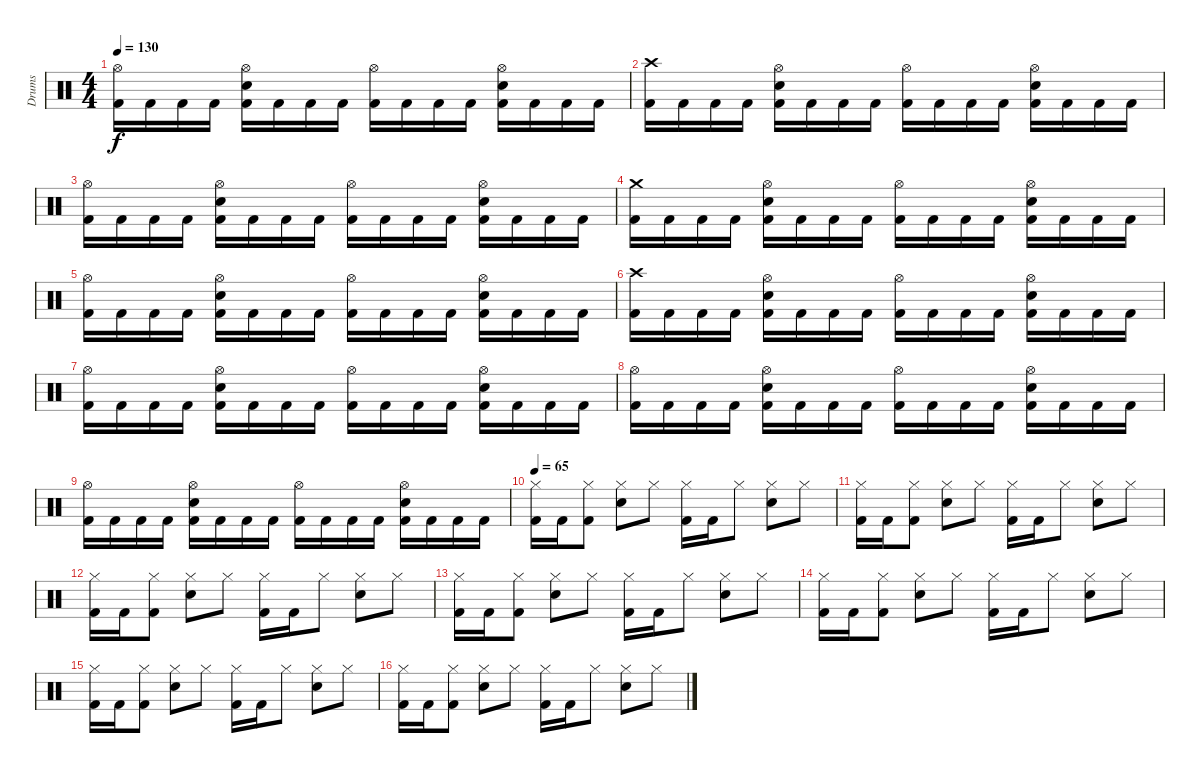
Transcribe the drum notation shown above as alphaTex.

\track ("Drums" "Drums") {instrument percussion}
\staff {score}
\articulation defaults
\ts (4 4)
\tempo 130
\clef neutral
\ks c
("Hi-Hat (open)" "Kick (hit) 2").16{dy f} "Kick (hit) 2".16 "Kick (hit) 2".16 "Kick (hit) 2".16 ("Hi-Hat (open)" "Electric Snare (hit)" "Kick (hit) 2").16 "Kick (hit) 2".16 "Kick (hit) 2".16 "Kick (hit) 2".16 ("Hi-Hat (open)" "Kick (hit) 2").16 "Kick (hit) 2".16 "Kick (hit) 2".16 "Kick (hit) 2".16 ("Hi-Hat (open)" "Electric Snare (hit)" "Kick (hit) 2").16 "Kick (hit) 2".16 "Kick (hit) 2".16 "Kick (hit) 2".16 |
("Crash high (hit)" "Kick (hit) 2").16 "Kick (hit) 2".16 "Kick (hit) 2".16 "Kick (hit) 2".16 ("Hi-Hat (open)" "Electric Snare (hit)" "Kick (hit) 2").16 "Kick (hit) 2".16 "Kick (hit) 2".16 "Kick (hit) 2".16 ("Hi-Hat (open)" "Kick (hit) 2").16 "Kick (hit) 2".16 "Kick (hit) 2".16 "Kick (hit) 2".16 ("Hi-Hat (open)" "Electric Snare (hit)" "Kick (hit) 2").16 "Kick (hit) 2".16 "Kick (hit) 2".16 "Kick (hit) 2".16 |
("Hi-Hat (open)" "Kick (hit) 2").16 "Kick (hit) 2".16 "Kick (hit) 2".16 "Kick (hit) 2".16 ("Hi-Hat (open)" "Electric Snare (hit)" "Kick (hit) 2").16 "Kick (hit) 2".16 "Kick (hit) 2".16 "Kick (hit) 2".16 ("Hi-Hat (open)" "Kick (hit) 2").16 "Kick (hit) 2".16 "Kick (hit) 2".16 "Kick (hit) 2".16 ("Hi-Hat (open)" "Electric Snare (hit)" "Kick (hit) 2").16 "Kick (hit) 2".16 "Kick (hit) 2".16 "Kick (hit) 2".16 |
("Crash medium (hit)" "Kick (hit) 2").16 "Kick (hit) 2".16 "Kick (hit) 2".16 "Kick (hit) 2".16 ("Hi-Hat (open)" "Electric Snare (hit)" "Kick (hit) 2").16 "Kick (hit) 2".16 "Kick (hit) 2".16 "Kick (hit) 2".16 ("Hi-Hat (open)" "Kick (hit) 2").16 "Kick (hit) 2".16 "Kick (hit) 2".16 "Kick (hit) 2".16 ("Hi-Hat (open)" "Electric Snare (hit)" "Kick (hit) 2").16 "Kick (hit) 2".16 "Kick (hit) 2".16 "Kick (hit) 2".16 |
("Hi-Hat (open)" "Kick (hit) 2").16 "Kick (hit) 2".16 "Kick (hit) 2".16 "Kick (hit) 2".16 ("Hi-Hat (open)" "Electric Snare (hit)" "Kick (hit) 2").16 "Kick (hit) 2".16 "Kick (hit) 2".16 "Kick (hit) 2".16 ("Hi-Hat (open)" "Kick (hit) 2").16 "Kick (hit) 2".16 "Kick (hit) 2".16 "Kick (hit) 2".16 ("Hi-Hat (open)" "Electric Snare (hit)" "Kick (hit) 2").16 "Kick (hit) 2".16 "Kick (hit) 2".16 "Kick (hit) 2".16 |
("Crash high (hit)" "Kick (hit) 2").16 "Kick (hit) 2".16 "Kick (hit) 2".16 "Kick (hit) 2".16 ("Hi-Hat (open)" "Electric Snare (hit)" "Kick (hit) 2").16 "Kick (hit) 2".16 "Kick (hit) 2".16 "Kick (hit) 2".16 ("Hi-Hat (open)" "Kick (hit) 2").16 "Kick (hit) 2".16 "Kick (hit) 2".16 "Kick (hit) 2".16 ("Hi-Hat (open)" "Electric Snare (hit)" "Kick (hit) 2").16 "Kick (hit) 2".16 "Kick (hit) 2".16 "Kick (hit) 2".16 |
("Hi-Hat (open)" "Kick (hit) 2").16 "Kick (hit) 2".16 "Kick (hit) 2".16 "Kick (hit) 2".16 ("Hi-Hat (open)" "Electric Snare (hit)" "Kick (hit) 2").16 "Kick (hit) 2".16 "Kick (hit) 2".16 "Kick (hit) 2".16 ("Hi-Hat (open)" "Kick (hit) 2").16 "Kick (hit) 2".16 "Kick (hit) 2".16 "Kick (hit) 2".16 ("Hi-Hat (open)" "Electric Snare (hit)" "Kick (hit) 2").16 "Kick (hit) 2".16 "Kick (hit) 2".16 "Kick (hit) 2".16 |
("Hi-Hat (open)" "Kick (hit) 2").16 "Kick (hit) 2".16 "Kick (hit) 2".16 "Kick (hit) 2".16 ("Hi-Hat (open)" "Electric Snare (hit)" "Kick (hit) 2").16 "Kick (hit) 2".16 "Kick (hit) 2".16 "Kick (hit) 2".16 ("Hi-Hat (open)" "Kick (hit) 2").16 "Kick (hit) 2".16 "Kick (hit) 2".16 "Kick (hit) 2".16 ("Hi-Hat (open)" "Electric Snare (hit)" "Kick (hit) 2").16 "Kick (hit) 2".16 "Kick (hit) 2".16 "Kick (hit) 2".16 |
("Hi-Hat (open)" "Kick (hit) 2").16 "Kick (hit) 2".16 "Kick (hit) 2".16 "Kick (hit) 2".16 ("Hi-Hat (open)" "Electric Snare (hit)" "Kick (hit) 2").16 "Kick (hit) 2".16 "Kick (hit) 2".16 "Kick (hit) 2".16 ("Hi-Hat (open)" "Kick (hit) 2").16 "Kick (hit) 2".16 "Kick (hit) 2".16 "Kick (hit) 2".16 ("Hi-Hat (open)" "Electric Snare (hit)" "Kick (hit) 2").16 "Kick (hit) 2".16 "Kick (hit) 2".16 "Kick (hit) 2".16 |
\tempo 65
("Hi-Hat (closed)" "Kick (hit) 2").16 "Kick (hit) 2".16 ("Hi-Hat (closed)" "Kick (hit) 2").8 ("Hi-Hat (closed)" "Electric Snare (hit)").8 "Hi-Hat (closed)".8 ("Hi-Hat (closed)" "Kick (hit) 2").16 "Kick (hit) 2".16 "Hi-Hat (closed)".8 ("Hi-Hat (closed)" "Electric Snare (hit)").8 "Hi-Hat (closed)".8 |
("Hi-Hat (closed)" "Kick (hit) 2").16 "Kick (hit) 2".16 ("Hi-Hat (closed)" "Kick (hit) 2").8 ("Hi-Hat (closed)" "Electric Snare (hit)").8 "Hi-Hat (closed)".8 ("Hi-Hat (closed)" "Kick (hit) 2").16 "Kick (hit) 2".16 "Hi-Hat (closed)".8 ("Hi-Hat (closed)" "Electric Snare (hit)").8 "Hi-Hat (closed)".8 |
("Hi-Hat (closed)" "Kick (hit) 2").16 "Kick (hit) 2".16 ("Hi-Hat (closed)" "Kick (hit) 2").8 ("Hi-Hat (closed)" "Electric Snare (hit)").8 "Hi-Hat (closed)".8 ("Hi-Hat (closed)" "Kick (hit) 2").16 "Kick (hit) 2".16 "Hi-Hat (closed)".8 ("Hi-Hat (closed)" "Electric Snare (hit)").8 "Hi-Hat (closed)".8 |
("Hi-Hat (closed)" "Kick (hit) 2").16 "Kick (hit) 2".16 ("Hi-Hat (closed)" "Kick (hit) 2").8 ("Hi-Hat (closed)" "Electric Snare (hit)").8 "Hi-Hat (closed)".8 ("Hi-Hat (closed)" "Kick (hit) 2").16 "Kick (hit) 2".16 "Hi-Hat (closed)".8 ("Hi-Hat (closed)" "Electric Snare (hit)").8 "Hi-Hat (closed)".8 |
("Hi-Hat (closed)" "Kick (hit) 2").16 "Kick (hit) 2".16 ("Hi-Hat (closed)" "Kick (hit) 2").8 ("Hi-Hat (closed)" "Electric Snare (hit)").8 "Hi-Hat (closed)".8 ("Hi-Hat (closed)" "Kick (hit) 2").16 "Kick (hit) 2".16 "Hi-Hat (closed)".8 ("Hi-Hat (closed)" "Electric Snare (hit)").8 "Hi-Hat (closed)".8 |
("Hi-Hat (closed)" "Kick (hit) 2").16 "Kick (hit) 2".16 ("Hi-Hat (closed)" "Kick (hit) 2").8 ("Hi-Hat (closed)" "Electric Snare (hit)").8 "Hi-Hat (closed)".8 ("Hi-Hat (closed)" "Kick (hit) 2").16 "Kick (hit) 2".16 "Hi-Hat (closed)".8 ("Hi-Hat (closed)" "Electric Snare (hit)").8 "Hi-Hat (closed)".8 |
("Hi-Hat (closed)" "Kick (hit) 2").16 "Kick (hit) 2".16 ("Hi-Hat (closed)" "Kick (hit) 2").8 ("Hi-Hat (closed)" "Electric Snare (hit)").8 "Hi-Hat (closed)".8 ("Hi-Hat (closed)" "Kick (hit) 2").16 "Kick (hit) 2".16 "Hi-Hat (closed)".8 ("Hi-Hat (closed)" "Electric Snare (hit)").8 "Hi-Hat (closed)".8
